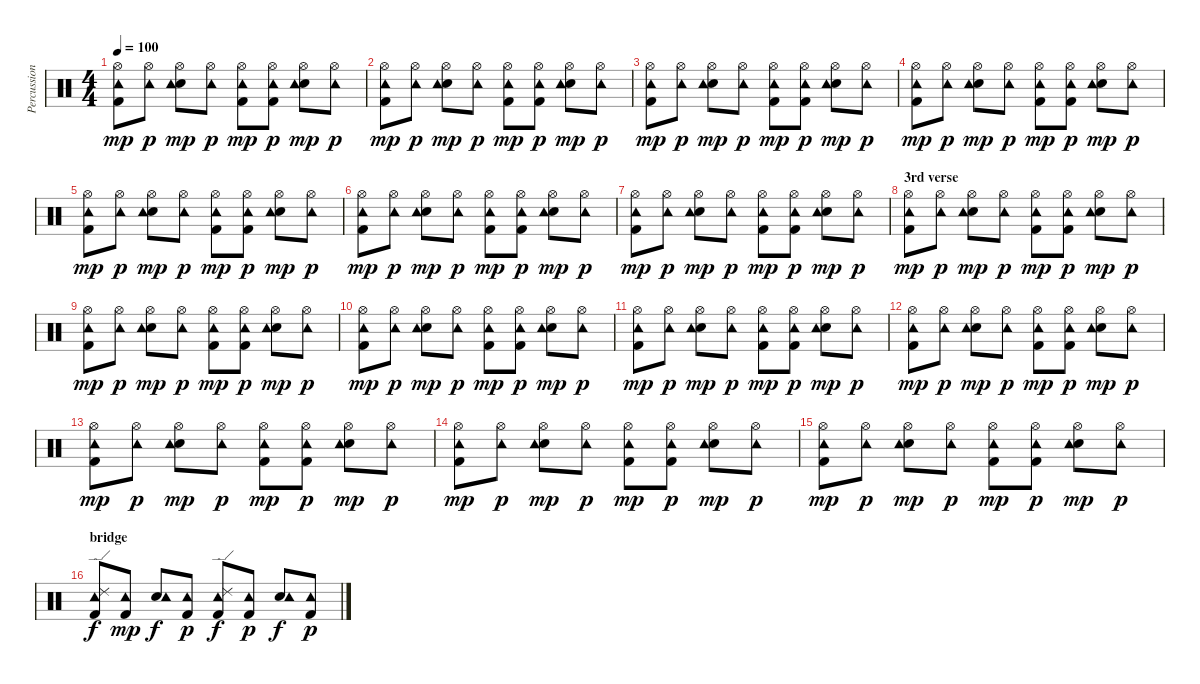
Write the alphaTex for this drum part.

\track ("Percussions" "Percussion") {instrument percussion}
\staff {score}
\articulation defaults
\ts (4 4)
\tempo 100
\clef neutral
\ks c
("Kick (hit) 2" "Tambourine (hit)" "Hi-Hat (open)").8{dy mp} ("Tambourine (hit)" "Hi-Hat (open)").8{dy p} ("Snare (hit) 2" "Tambourine (hit)" "Hi-Hat (open)").8{dy mp} ("Tambourine (hit)" "Hi-Hat (open)").8{dy p} ("Kick (hit) 2" "Tambourine (hit)" "Hi-Hat (open)").8{dy mp} ("Kick (hit) 2" "Tambourine (hit)" "Hi-Hat (open)").8{dy p} ("Snare (hit) 2" "Tambourine (hit)" "Hi-Hat (open)").8{dy mp} ("Tambourine (hit)" "Hi-Hat (open)").8{dy p} |
("Kick (hit) 2" "Tambourine (hit)" "Hi-Hat (open)").8{dy mp} ("Tambourine (hit)" "Hi-Hat (open)").8{dy p} ("Snare (hit) 2" "Tambourine (hit)" "Hi-Hat (open)").8{dy mp} ("Tambourine (hit)" "Hi-Hat (open)").8{dy p} ("Kick (hit) 2" "Tambourine (hit)" "Hi-Hat (open)").8{dy mp} ("Kick (hit) 2" "Tambourine (hit)" "Hi-Hat (open)").8{dy p} ("Snare (hit) 2" "Tambourine (hit)" "Hi-Hat (open)").8{dy mp} ("Tambourine (hit)" "Hi-Hat (open)").8{dy p} |
("Kick (hit) 2" "Tambourine (hit)" "Hi-Hat (open)").8{dy mp} ("Tambourine (hit)" "Hi-Hat (open)").8{dy p} ("Snare (hit) 2" "Tambourine (hit)" "Hi-Hat (open)").8{dy mp} ("Tambourine (hit)" "Hi-Hat (open)").8{dy p} ("Kick (hit) 2" "Tambourine (hit)" "Hi-Hat (open)").8{dy mp} ("Kick (hit) 2" "Tambourine (hit)" "Hi-Hat (open)").8{dy p} ("Snare (hit) 2" "Tambourine (hit)" "Hi-Hat (open)").8{dy mp} ("Tambourine (hit)" "Hi-Hat (open)").8{dy p} |
("Kick (hit) 2" "Tambourine (hit)" "Hi-Hat (open)").8{dy mp} ("Tambourine (hit)" "Hi-Hat (open)").8{dy p} ("Snare (hit) 2" "Tambourine (hit)" "Hi-Hat (open)").8{dy mp} ("Tambourine (hit)" "Hi-Hat (open)").8{dy p} ("Kick (hit) 2" "Tambourine (hit)" "Hi-Hat (open)").8{dy mp} ("Kick (hit) 2" "Tambourine (hit)" "Hi-Hat (open)").8{dy p} ("Snare (hit) 2" "Tambourine (hit)" "Hi-Hat (open)").8{dy mp} ("Tambourine (hit)" "Hi-Hat (open)").8{dy p} |
("Kick (hit) 2" "Tambourine (hit)" "Hi-Hat (open)").8{dy mp} ("Tambourine (hit)" "Hi-Hat (open)").8{dy p} ("Snare (hit) 2" "Tambourine (hit)" "Hi-Hat (open)").8{dy mp} ("Tambourine (hit)" "Hi-Hat (open)").8{dy p} ("Kick (hit) 2" "Tambourine (hit)" "Hi-Hat (open)").8{dy mp} ("Kick (hit) 2" "Tambourine (hit)" "Hi-Hat (open)").8{dy p} ("Snare (hit) 2" "Tambourine (hit)" "Hi-Hat (open)").8{dy mp} ("Tambourine (hit)" "Hi-Hat (open)").8{dy p} |
("Kick (hit) 2" "Tambourine (hit)" "Hi-Hat (open)").8{dy mp} ("Tambourine (hit)" "Hi-Hat (open)").8{dy p} ("Snare (hit) 2" "Tambourine (hit)" "Hi-Hat (open)").8{dy mp} ("Tambourine (hit)" "Hi-Hat (open)").8{dy p} ("Kick (hit) 2" "Tambourine (hit)" "Hi-Hat (open)").8{dy mp} ("Kick (hit) 2" "Tambourine (hit)" "Hi-Hat (open)").8{dy p} ("Snare (hit) 2" "Tambourine (hit)" "Hi-Hat (open)").8{dy mp} ("Tambourine (hit)" "Hi-Hat (open)").8{dy p} |
("Kick (hit) 2" "Tambourine (hit)" "Hi-Hat (open)").8{dy mp} ("Tambourine (hit)" "Hi-Hat (open)").8{dy p} ("Snare (hit) 2" "Tambourine (hit)" "Hi-Hat (open)").8{dy mp} ("Tambourine (hit)" "Hi-Hat (open)").8{dy p} ("Kick (hit) 2" "Tambourine (hit)" "Hi-Hat (open)").8{dy mp} ("Kick (hit) 2" "Tambourine (hit)" "Hi-Hat (open)").8{dy p} ("Snare (hit) 2" "Tambourine (hit)" "Hi-Hat (open)").8{dy mp} ("Tambourine (hit)" "Hi-Hat (open)").8{dy p} |
\section ("" "3rd verse")
("Kick (hit) 2" "Tambourine (hit)" "Hi-Hat (open)").8{dy mp} ("Tambourine (hit)" "Hi-Hat (open)").8{dy p} ("Snare (hit) 2" "Tambourine (hit)" "Hi-Hat (open)").8{dy mp} ("Tambourine (hit)" "Hi-Hat (open)").8{dy p} ("Kick (hit) 2" "Tambourine (hit)" "Hi-Hat (open)").8{dy mp} ("Kick (hit) 2" "Tambourine (hit)" "Hi-Hat (open)").8{dy p} ("Snare (hit) 2" "Tambourine (hit)" "Hi-Hat (open)").8{dy mp} ("Tambourine (hit)" "Hi-Hat (open)").8{dy p} |
("Kick (hit) 2" "Tambourine (hit)" "Hi-Hat (open)").8{dy mp} ("Tambourine (hit)" "Hi-Hat (open)").8{dy p} ("Snare (hit) 2" "Tambourine (hit)" "Hi-Hat (open)").8{dy mp} ("Tambourine (hit)" "Hi-Hat (open)").8{dy p} ("Kick (hit) 2" "Tambourine (hit)" "Hi-Hat (open)").8{dy mp} ("Kick (hit) 2" "Tambourine (hit)" "Hi-Hat (open)").8{dy p} ("Snare (hit) 2" "Tambourine (hit)" "Hi-Hat (open)").8{dy mp} ("Tambourine (hit)" "Hi-Hat (open)").8{dy p} |
("Kick (hit) 2" "Tambourine (hit)" "Hi-Hat (open)").8{dy mp} ("Tambourine (hit)" "Hi-Hat (open)").8{dy p} ("Snare (hit) 2" "Tambourine (hit)" "Hi-Hat (open)").8{dy mp} ("Tambourine (hit)" "Hi-Hat (open)").8{dy p} ("Kick (hit) 2" "Tambourine (hit)" "Hi-Hat (open)").8{dy mp} ("Kick (hit) 2" "Tambourine (hit)" "Hi-Hat (open)").8{dy p} ("Snare (hit) 2" "Tambourine (hit)" "Hi-Hat (open)").8{dy mp} ("Tambourine (hit)" "Hi-Hat (open)").8{dy p} |
("Kick (hit) 2" "Tambourine (hit)" "Hi-Hat (open)").8{dy mp} ("Tambourine (hit)" "Hi-Hat (open)").8{dy p} ("Snare (hit) 2" "Tambourine (hit)" "Hi-Hat (open)").8{dy mp} ("Tambourine (hit)" "Hi-Hat (open)").8{dy p} ("Kick (hit) 2" "Tambourine (hit)" "Hi-Hat (open)").8{dy mp} ("Kick (hit) 2" "Tambourine (hit)" "Hi-Hat (open)").8{dy p} ("Snare (hit) 2" "Tambourine (hit)" "Hi-Hat (open)").8{dy mp} ("Tambourine (hit)" "Hi-Hat (open)").8{dy p} |
("Kick (hit) 2" "Tambourine (hit)" "Hi-Hat (open)").8{dy mp} ("Tambourine (hit)" "Hi-Hat (open)").8{dy p} ("Snare (hit) 2" "Tambourine (hit)" "Hi-Hat (open)").8{dy mp} ("Tambourine (hit)" "Hi-Hat (open)").8{dy p} ("Kick (hit) 2" "Tambourine (hit)" "Hi-Hat (open)").8{dy mp} ("Kick (hit) 2" "Tambourine (hit)" "Hi-Hat (open)").8{dy p} ("Snare (hit) 2" "Tambourine (hit)" "Hi-Hat (open)").8{dy mp} ("Tambourine (hit)" "Hi-Hat (open)").8{dy p} |
("Kick (hit) 2" "Tambourine (hit)" "Hi-Hat (open)").8{dy mp} ("Tambourine (hit)" "Hi-Hat (open)").8{dy p} ("Snare (hit) 2" "Tambourine (hit)" "Hi-Hat (open)").8{dy mp} ("Tambourine (hit)" "Hi-Hat (open)").8{dy p} ("Kick (hit) 2" "Tambourine (hit)" "Hi-Hat (open)").8{dy mp} ("Kick (hit) 2" "Tambourine (hit)" "Hi-Hat (open)").8{dy p} ("Snare (hit) 2" "Tambourine (hit)" "Hi-Hat (open)").8{dy mp} ("Tambourine (hit)" "Hi-Hat (open)").8{dy p} |
("Kick (hit) 2" "Tambourine (hit)" "Hi-Hat (open)").8{dy mp} ("Tambourine (hit)" "Hi-Hat (open)").8{dy p} ("Snare (hit) 2" "Tambourine (hit)" "Hi-Hat (open)").8{dy mp} ("Tambourine (hit)" "Hi-Hat (open)").8{dy p} ("Kick (hit) 2" "Tambourine (hit)" "Hi-Hat (open)").8{dy mp} ("Kick (hit) 2" "Tambourine (hit)" "Hi-Hat (open)").8{dy p} ("Snare (hit) 2" "Tambourine (hit)" "Hi-Hat (open)").8{dy mp} ("Tambourine (hit)" "Hi-Hat (open)").8{dy p} |
("Kick (hit) 2" "Tambourine (hit)" "Hi-Hat (open)").8{dy mp} ("Tambourine (hit)" "Hi-Hat (open)").8{dy p} ("Snare (hit) 2" "Tambourine (hit)" "Hi-Hat (open)").8{dy mp} ("Tambourine (hit)" "Hi-Hat (open)").8{dy p} ("Kick (hit) 2" "Tambourine (hit)" "Hi-Hat (open)").8{dy mp} ("Kick (hit) 2" "Tambourine (hit)" "Hi-Hat (open)").8{dy p} ("Snare (hit) 2" "Tambourine (hit)" "Hi-Hat (open)").8{dy mp} ("Tambourine (hit)" "Hi-Hat (open)").8{dy p} |
\section ("" "bridge")
("Kick (hit) 2" "Tambourine (hit)" "Ride (edge) 2").8{dy f} ("Kick (hit) 2" "Tambourine (hit)").8{dy mp} ("Snare (hit) 2" "Tambourine (hit)").8{dy f} ("Kick (hit) 2" "Tambourine (hit)").8{dy p} ("Kick (hit) 2" "Tambourine (hit)" "Ride (edge) 2").8{dy f} ("Kick (hit) 2" "Tambourine (hit)").8{dy p} ("Snare (hit) 2" "Tambourine (hit)").8{dy f} ("Kick (hit) 2" "Tambourine (hit)").8{dy p}
